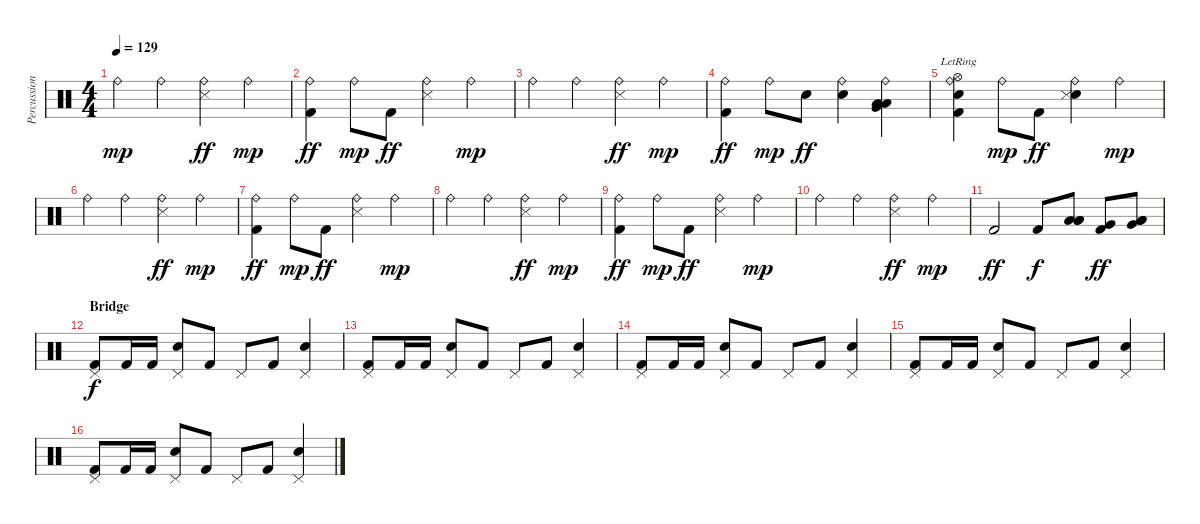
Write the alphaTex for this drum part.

\track ("Percussion" "Percussion") {instrument percussion}
\staff {score}
\articulation defaults
\ts (4 4)
\tempo 129
\clef neutral
\ks c "Ride (bell)".4{dy mp} "Ride (bell)".4
("Ride (bell)" "Snare (side stick) 3").4{dy ff} "Ride (bell)".4{dy mp} |
("Ride (bell)" "Kick (hit) 2").4{dy ff} "Ride (bell)".8{dy mp} "Kick (hit) 2".8{dy ff} ("Ride (bell)" "Snare (side stick) 3").4 "Ride (bell)".4{dy mp} |
"Ride (bell)".4 "Ride (bell)".4 ("Ride (bell)" "Snare (side stick) 3").4{dy ff} "Ride (bell)".4{dy mp} |
("Ride (bell)" "Kick (hit) 2").4{dy ff} "Ride (bell)".8{dy mp} "Electric Snare (hit)".8{dy ff} ("Ride (bell)" "Electric Snare (hit)").4 ("Ride (bell)" "Low Floor Tom (hit)" "Very Low Tom (hit)" "Low Floor Tom (hit)").4{bu 120} |
("Ride (bell)" "Hi-Hat (open)"{lr} "Electric Snare (hit)" "Kick (hit) 2").4 "Ride (bell)".8{dy mp} "Kick (hit) 2".8{dy ff} ("Ride (bell)" "Electric Snare (hit)" "Snare (side stick) 3").4 "Ride (bell)".4{dy mp} |
"Ride (bell)".4 "Ride (bell)".4 ("Ride (bell)" "Snare (side stick) 3").4{dy ff} "Ride (bell)".4{dy mp} |
("Ride (bell)" "Kick (hit) 2").4{dy ff} "Ride (bell)".8{dy mp} "Kick (hit) 2".8{dy ff} ("Ride (bell)" "Snare (side stick) 3").4 "Ride (bell)".4{dy mp} |
"Ride (bell)".4 "Ride (bell)".4 ("Ride (bell)" "Snare (side stick) 3").4{dy ff} "Ride (bell)".4{dy mp} |
("Ride (bell)" "Kick (hit) 2").4{dy ff} "Ride (bell)".8{dy mp} "Kick (hit) 2".8{dy ff} ("Ride (bell)" "Snare (side stick) 3").4 "Ride (bell)".4{dy mp} |
"Ride (bell)".4 "Ride (bell)".4 ("Ride (bell)" "Snare (side stick) 3").4{dy ff} "Ride (bell)".4{dy mp} |
"Kick (hit) 2".2{dy ff} "Kick (hit) 2".8{dy f} ("Low Tom (hit)" "Low Floor Tom (hit)" "Low Floor Tom (hit)").8 ("Very Low Tom (hit)" "Kick (hit) 2").8{dy ff} ("Low Floor Tom (hit)" "Very Low Tom (hit)" "Low Floor Tom (hit)").8{bu 120} |
\section ("" "Bridge")
("Pedal Hi-Hat (hit)" "Kick (hit) 2").8{dy f} "Kick (hit) 2".16 "Kick (hit) 2".16 ("Pedal Hi-Hat (hit)" "Electric Snare (hit)").8 "Kick (hit) 2".8 "Pedal Hi-Hat (hit)".8 "Kick (hit) 2".8 ("Pedal Hi-Hat (hit)" "Electric Snare (hit)").4 |
("Pedal Hi-Hat (hit)" "Kick (hit) 2").8 "Kick (hit) 2".16 "Kick (hit) 2".16 ("Pedal Hi-Hat (hit)" "Electric Snare (hit)").8 "Kick (hit) 2".8 "Pedal Hi-Hat (hit)".8 "Kick (hit) 2".8 ("Pedal Hi-Hat (hit)" "Electric Snare (hit)").4 |
("Pedal Hi-Hat (hit)" "Kick (hit) 2").8 "Kick (hit) 2".16 "Kick (hit) 2".16 ("Pedal Hi-Hat (hit)" "Electric Snare (hit)").8 "Kick (hit) 2".8 "Pedal Hi-Hat (hit)".8 "Kick (hit) 2".8 ("Pedal Hi-Hat (hit)" "Electric Snare (hit)").4 |
("Pedal Hi-Hat (hit)" "Kick (hit) 2").8 "Kick (hit) 2".16 "Kick (hit) 2".16 ("Pedal Hi-Hat (hit)" "Electric Snare (hit)").8 "Kick (hit) 2".8 "Pedal Hi-Hat (hit)".8 "Kick (hit) 2".8 ("Pedal Hi-Hat (hit)" "Electric Snare (hit)").4 |
("Pedal Hi-Hat (hit)" "Kick (hit) 2").8 "Kick (hit) 2".16 "Kick (hit) 2".16 ("Pedal Hi-Hat (hit)" "Electric Snare (hit)").8 "Kick (hit) 2".8 "Pedal Hi-Hat (hit)".8 "Kick (hit) 2".8 ("Pedal Hi-Hat (hit)" "Electric Snare (hit)").4
